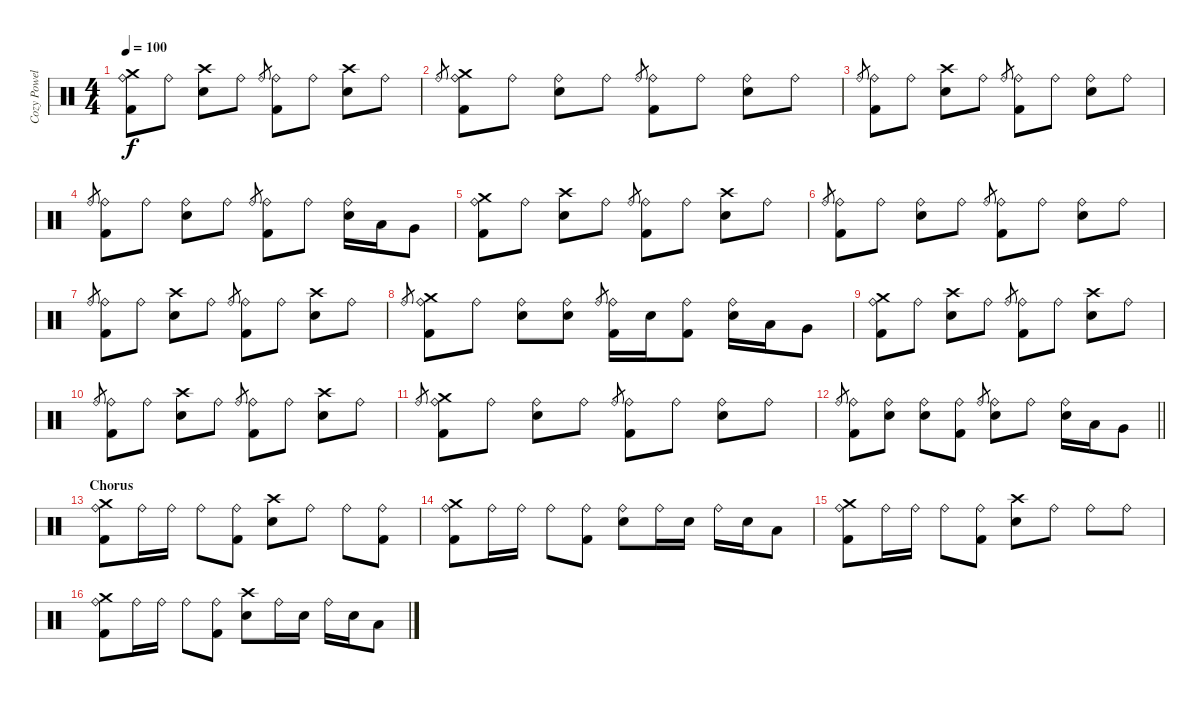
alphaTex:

\track ("Cozy Powell " "Cozy Powel") {instrument percussion}
\staff {score}
\articulation defaults
\ts (4 4)
\tempo 100
\clef neutral
\ks c
("Crash medium (hit)" "Ride (bell)" "Kick (hit) 2").8{dy f} "Ride (bell)".8 ("Crash high (hit)" "Snare (hit) 2").8 "Ride (bell)".8 "Ride (bell)".8{gr} ("Ride (bell)" "Kick (hit) 2").8 "Ride (bell)".8 ("Crash high (hit)" "Snare (hit) 2").8 "Ride (bell)".8 |
"Ride (bell)".8{gr} ("Crash medium (hit)" "Ride (bell)" "Kick (hit) 2").8 "Ride (bell)".8 ("Ride (bell)" "Snare (hit) 2").8 "Ride (bell)".8 "Ride (bell)".8{gr} ("Ride (bell)" "Kick (hit) 2").8 "Ride (bell)".8 ("Ride (bell)" "Snare (hit) 2").8 "Ride (bell)".8 |
"Ride (bell)".8{gr} ("Ride (bell)" "Kick (hit) 2").8 "Ride (bell)".8 ("Crash high (hit)" "Snare (hit) 2").8 "Ride (bell)".8 "Ride (bell)".8{gr} ("Ride (bell)" "Kick (hit) 2").8 "Ride (bell)".8 ("Ride (bell)" "Snare (hit) 2").8 "Ride (bell)".8 |
"Ride (bell)".8{gr} ("Ride (bell)" "Kick (hit) 2").8 "Ride (bell)".8 ("Ride (bell)" "Snare (hit) 2").8 "Ride (bell)".8 "Ride (bell)".8{gr} ("Ride (bell)" "Kick (hit) 2").8 "Ride (bell)".8 ("Ride (bell)" "Snare (hit) 2").16 "Low Tom (hit)".16 "Very Low Tom (hit)".8 |
("Crash medium (hit)" "Ride (bell)" "Kick (hit) 2").8 "Ride (bell)".8 ("Crash high (hit)" "Snare (hit) 2").8 "Ride (bell)".8 "Ride (bell)".8{gr} ("Ride (bell)" "Kick (hit) 2").8 "Ride (bell)".8 ("Crash high (hit)" "Snare (hit) 2").8 "Ride (bell)".8 |
"Ride (bell)".8{gr} ("Ride (bell)" "Kick (hit) 2").8 "Ride (bell)".8 ("Ride (bell)" "Snare (hit) 2").8 "Ride (bell)".8 "Ride (bell)".8{gr} ("Ride (bell)" "Kick (hit) 2").8 "Ride (bell)".8 ("Ride (bell)" "Snare (hit) 2").8 "Ride (bell)".8 |
"Ride (bell)".8{gr} ("Ride (bell)" "Kick (hit) 2").8 "Ride (bell)".8 ("Crash high (hit)" "Snare (hit) 2").8 "Ride (bell)".8 "Ride (bell)".8{gr} ("Ride (bell)" "Kick (hit) 2").8 "Ride (bell)".8 ("Crash high (hit)" "Snare (hit) 2").8 "Ride (bell)".8 |
"Ride (bell)".8{gr} ("Crash medium (hit)" "Ride (bell)" "Kick (hit) 2").8 "Ride (bell)".8 ("Ride (bell)" "Snare (hit) 2").8 ("Ride (bell)" "Snare (hit) 2").8 "Ride (bell)".8{gr} ("Ride (bell)" "Kick (hit) 2").16 "Snare (hit) 2".16 ("Ride (bell)" "Kick (hit) 2").8 ("Ride (bell)" "Snare (hit) 2").16 "Low Tom (hit)".16 "Very Low Tom (hit)".8 |
("Crash medium (hit)" "Ride (bell)" "Kick (hit) 2").8 "Ride (bell)".8 ("Crash high (hit)" "Snare (hit) 2").8 "Ride (bell)".8 "Ride (bell)".8{gr} ("Ride (bell)" "Kick (hit) 2").8 "Ride (bell)".8 ("Crash high (hit)" "Snare (hit) 2").8 "Ride (bell)".8 |
"Ride (bell)".8{gr} ("Ride (bell)" "Kick (hit) 2").8 "Ride (bell)".8 ("Crash high (hit)" "Snare (hit) 2").8 "Ride (bell)".8 "Ride (bell)".8{gr} ("Ride (bell)" "Kick (hit) 2").8 "Ride (bell)".8 ("Crash high (hit)" "Snare (hit) 2").8 "Ride (bell)".8 |
"Ride (bell)".8{gr} ("Crash medium (hit)" "Ride (bell)" "Kick (hit) 2").8 "Ride (bell)".8 ("Ride (bell)" "Snare (hit) 2").8 "Ride (bell)".8 "Ride (bell)".8{gr} ("Ride (bell)" "Kick (hit) 2").8 "Ride (bell)".8 ("Ride (bell)" "Snare (hit) 2").8 "Ride (bell)".8 |
\barLineRight lightlight "Ride (bell)".8{gr}
("Ride (bell)" "Kick (hit) 2").8 ("Ride (bell)" "Snare (hit) 2").8 ("Ride (bell)" "Snare (hit) 2").8 ("Ride (bell)" "Kick (hit) 2").8 "Ride (bell)".8{gr} ("Ride (bell)" "Snare (hit) 2").8 "Ride (bell)".8 ("Ride (bell)" "Snare (hit) 2").16 "Low Tom (hit)".16 "Very Low Tom (hit)".8 |
\section ("" "Chorus")
("Crash medium (hit)" "Ride (bell)" "Kick (hit) 2").8 "Ride (bell)".16 "Ride (bell)".16 "Ride (bell)".8 ("Ride (bell)" "Kick (hit) 2").8 ("Crash high (hit)" "Snare (hit) 2").8 "Ride (bell)".8 "Ride (bell)".8 ("Ride (bell)" "Kick (hit) 2").8 |
("Crash medium (hit)" "Ride (bell)" "Kick (hit) 2").8 "Ride (bell)".16 "Ride (bell)".16 "Ride (bell)".8 ("Ride (bell)" "Kick (hit) 2").8 ("Ride (bell)" "Snare (hit) 2").8 "Ride (bell)".16 "Snare (hit) 2".16 "Ride (bell)".16 "Snare (hit) 2".16 "Low Tom (hit)".8 |
("Crash medium (hit)" "Ride (bell)" "Kick (hit) 2").8 "Ride (bell)".16 "Ride (bell)".16 "Ride (bell)".8 ("Ride (bell)" "Kick (hit) 2").8 ("Crash high (hit)" "Snare (hit) 2").8 "Ride (bell)".8 "Ride (bell)".8 "Ride (bell)".8 |
("Crash medium (hit)" "Ride (bell)" "Kick (hit) 2").8 "Ride (bell)".16 "Ride (bell)".16 "Ride (bell)".8 ("Ride (bell)" "Kick (hit) 2").8 ("Crash high (hit)" "Snare (hit) 2").8 "Ride (bell)".16 "Snare (hit) 2".16 "Ride (bell)".16 "Snare (hit) 2".16 "Low Tom (hit)".8
